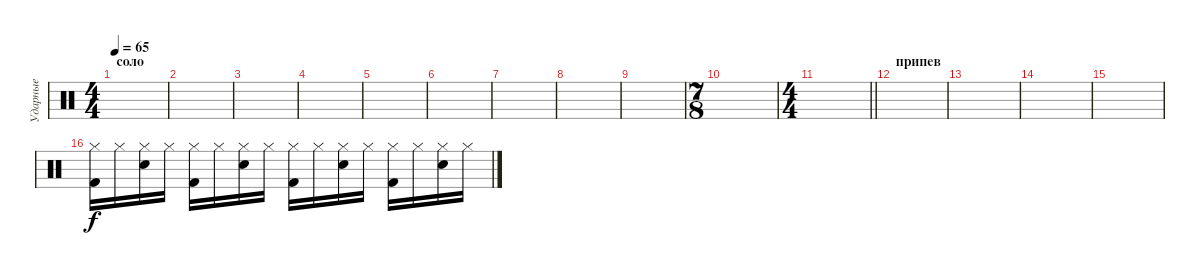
\track ("Ударные" "Ударные") {instrument percussion}
\staff {score}
\articulation defaults
\ts (4 4)
\section ("" "соло")
\tempo 65
\clef neutral
\ks c
|
|
|
|
|
|
|
|
|
\ts (7 8)
|
\ts (4 4)
\barLineRight lightlight
|
\section ("" "припев")
|
|
|
|
("Hi-Hat (closed)" "Kick (hit) 2").16 "Hi-Hat (closed)".16 ("Hi-Hat (closed)" "Snare (hit) 2").16 "Hi-Hat (closed)".16 ("Hi-Hat (closed)" "Kick (hit) 2").16 "Hi-Hat (closed)".16 ("Hi-Hat (closed)" "Snare (hit) 2").16 "Hi-Hat (closed)".16 ("Hi-Hat (closed)" "Kick (hit) 2").16 "Hi-Hat (closed)".16 ("Hi-Hat (closed)" "Snare (hit) 2").16 "Hi-Hat (closed)".16 ("Hi-Hat (closed)" "Kick (hit) 2").16 "Hi-Hat (closed)".16 ("Hi-Hat (closed)" "Snare (hit) 2").16 "Hi-Hat (closed)".16
